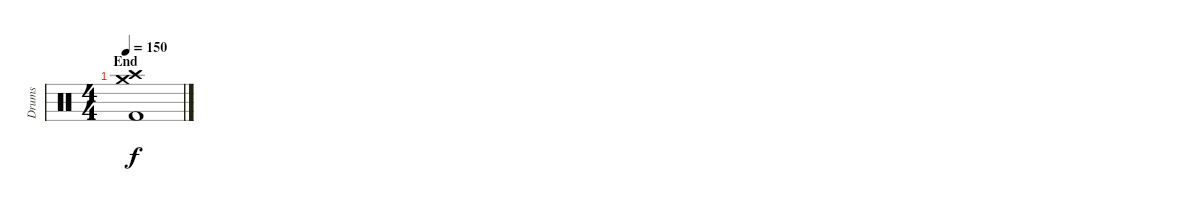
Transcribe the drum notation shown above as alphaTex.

\track ("Drums" "Drums") {instrument percussion}
\staff {score}
\articulation defaults
\ts (4 4)
\section ("" "End")
\tempo 150
\clef neutral
\ks c
("Crash high (hit)" "Crash medium (hit)" "Kick (hit) 2").1{dy f}
